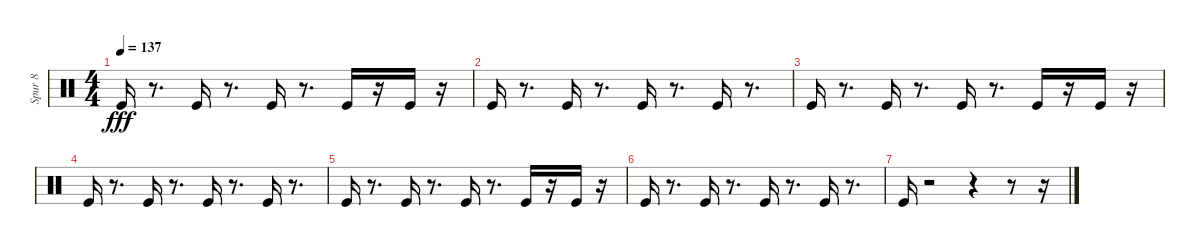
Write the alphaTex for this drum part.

\track ("Spur 8" "Spur 8") {instrument percussion}
\staff {score}
\articulation defaults
\ts (4 4)
\tempo 137
\clef neutral
\ks c "Kick (hit)".16{dy fff}
r.8{d} "Kick (hit)".16 r.8{d} "Kick (hit)".16 r.8{d} "Kick (hit)".16 r.16 "Kick (hit)".16 r.16 |
"Kick (hit)".16 r.8{d} "Kick (hit)".16 r.8{d} "Kick (hit)".16 r.8{d} "Kick (hit)".16 r.8{d} |
"Kick (hit)".16 r.8{d} "Kick (hit)".16 r.8{d} "Kick (hit)".16 r.8{d} "Kick (hit)".16 r.16 "Kick (hit)".16 r.16 |
"Kick (hit)".16 r.8{d} "Kick (hit)".16 r.8{d} "Kick (hit)".16 r.8{d} "Kick (hit)".16 r.8{d} |
"Kick (hit)".16 r.8{d} "Kick (hit)".16 r.8{d} "Kick (hit)".16 r.8{d} "Kick (hit)".16 r.16 "Kick (hit)".16 r.16 |
"Kick (hit)".16 r.8{d} "Kick (hit)".16 r.8{d} "Kick (hit)".16 r.8{d} "Kick (hit)".16 r.8{d} |
"Kick (hit)".16 r.2 r.4 r.8 r.16
